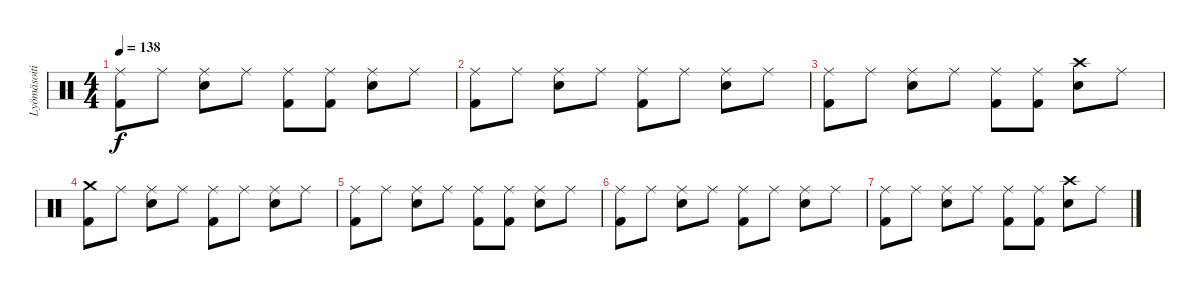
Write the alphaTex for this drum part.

\track ("Lyömäsoitin" "Lyömäsoiti") {instrument percussion}
\staff {score}
\articulation defaults
\ts (4 4)
\tempo 138
\clef neutral
\ks c
("Ride (middle)" "Kick (hit) 2").8{dy f} "Ride (middle)".8 ("Ride (middle)" "Electric Snare (hit)").8 "Ride (middle)".8 ("Ride (middle)" "Kick (hit) 2").8 ("Ride (middle)" "Kick (hit) 2").8 ("Ride (middle)" "Electric Snare (hit)").8 "Ride (middle)".8 |
("Ride (middle)" "Kick (hit) 2").8 "Ride (middle)".8 ("Ride (middle)" "Electric Snare (hit)").8 "Ride (middle)".8 ("Ride (middle)" "Kick (hit) 2").8 "Ride (middle)".8 ("Ride (middle)" "Electric Snare (hit)").8 "Ride (middle)".8 |
("Ride (middle)" "Kick (hit) 2").8 "Ride (middle)".8 ("Ride (middle)" "Electric Snare (hit)").8 "Ride (middle)".8 ("Ride (middle)" "Kick (hit) 2").8 ("Ride (middle)" "Kick (hit) 2").8 ("Crash high (hit)" "Electric Snare (hit)").8 "Ride (middle)".8 |
("Crash medium (hit)" "Kick (hit) 2").8 "Ride (middle)".8 ("Ride (middle)" "Electric Snare (hit)").8 "Ride (middle)".8 ("Ride (middle)" "Kick (hit) 2").8 "Ride (middle)".8 ("Ride (middle)" "Electric Snare (hit)").8 "Ride (middle)".8 |
("Ride (middle)" "Kick (hit) 2").8 "Ride (middle)".8 ("Ride (middle)" "Electric Snare (hit)").8 "Ride (middle)".8 ("Ride (middle)" "Kick (hit) 2").8 ("Ride (middle)" "Kick (hit) 2").8 ("Ride (middle)" "Electric Snare (hit)").8 "Ride (middle)".8 |
("Ride (middle)" "Kick (hit) 2").8 "Ride (middle)".8 ("Ride (middle)" "Electric Snare (hit)").8 "Ride (middle)".8 ("Ride (middle)" "Kick (hit) 2").8 "Ride (middle)".8 ("Ride (middle)" "Electric Snare (hit)").8 "Ride (middle)".8 |
("Ride (middle)" "Kick (hit) 2").8 "Ride (middle)".8 ("Ride (middle)" "Electric Snare (hit)").8 "Ride (middle)".8 ("Ride (middle)" "Kick (hit) 2").8 ("Ride (middle)" "Kick (hit) 2").8 ("Crash high (hit)" "Electric Snare (hit)").8 "Ride (middle)".8
